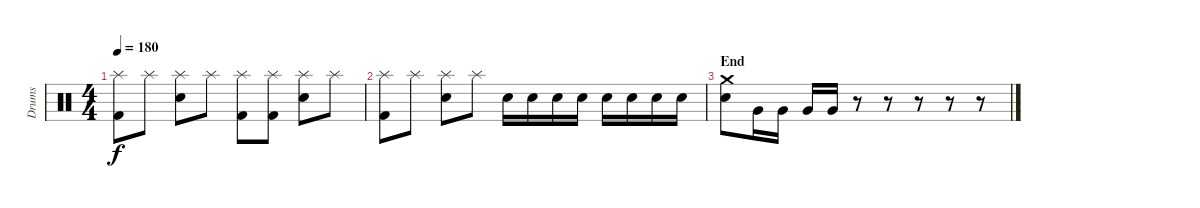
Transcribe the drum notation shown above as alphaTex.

\track ("Drums" "Drums") {instrument percussion}
\staff {score}
\articulation defaults
\ts (4 4)
\tempo 180
\clef neutral
\ks c
("Splash (hit)" "Kick (hit) 2").8{dy f} "Splash (hit)".8 ("Splash (hit)" "Electric Snare (hit)").8 "Splash (hit)".8 ("Splash (hit)" "Kick (hit) 2").8 ("Splash (hit)" "Kick (hit) 2").8 ("Splash (hit)" "Electric Snare (hit)").8 "Splash (hit)".8 |
("Splash (hit)" "Kick (hit) 2").8 "Splash (hit)".8 ("Splash (hit)" "Electric Snare (hit)").8 "Splash (hit)".8 "Electric Snare (hit)".16{volume 9} "Electric Snare (hit)".16{volume 10} "Electric Snare (hit)".16{volume 11} "Electric Snare (hit)".16{volume 12} "Electric Snare (hit)".16{volume 13} "Electric Snare (hit)".16 "Electric Snare (hit)".16 "Electric Snare (hit)".16 |
\section ("" "End")
("Crash medium (hit)" "Electric Snare (hit)").8 "Very Low Tom (hit)".16 "Very Low Tom (hit)".16 "Very Low Tom (hit)".16 "Very Low Tom (hit)".16 r.8 r.8 r.8 r.8 r.8
